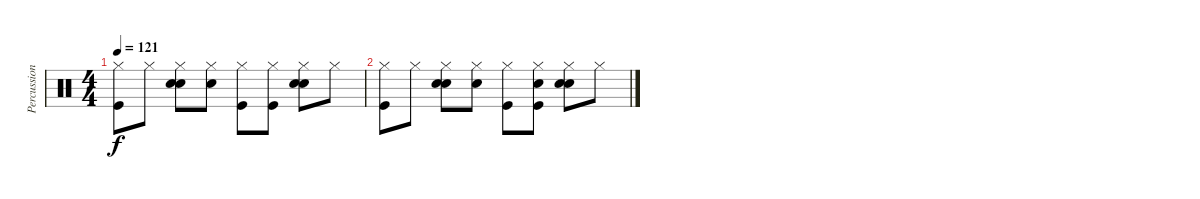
\track ("Percussion" "Percussion") {instrument percussion}
\staff {score}
\articulation defaults
\ts (4 4)
\tempo 121
\clef neutral
\ks c
("Hi-Hat (closed)" "Kick (hit)").8{dy f} "Hi-Hat (closed)".8 ("Hand Clap (hit)" "Hi-Hat (closed)" "Snare (hit) 2").8 ("Hand Clap (hit)" "Hi-Hat (closed)").8 ("Hi-Hat (closed)" "Kick (hit)").8 ("Hi-Hat (closed)" "Kick (hit)").8 ("Hand Clap (hit)" "Hi-Hat (closed)" "Snare (hit) 2").8 "Hi-Hat (closed)".8 |
("Hi-Hat (closed)" "Kick (hit)").8 "Hi-Hat (closed)".8 ("Hand Clap (hit)" "Hi-Hat (closed)" "Snare (hit) 2").8 ("Hand Clap (hit)" "Hi-Hat (closed)").8 ("Hi-Hat (closed)" "Kick (hit)").8 ("Hand Clap (hit)" "Hi-Hat (closed)" "Kick (hit)").8 ("Hand Clap (hit)" "Hi-Hat (closed)" "Snare (hit) 2").8 "Hi-Hat (closed)".8
